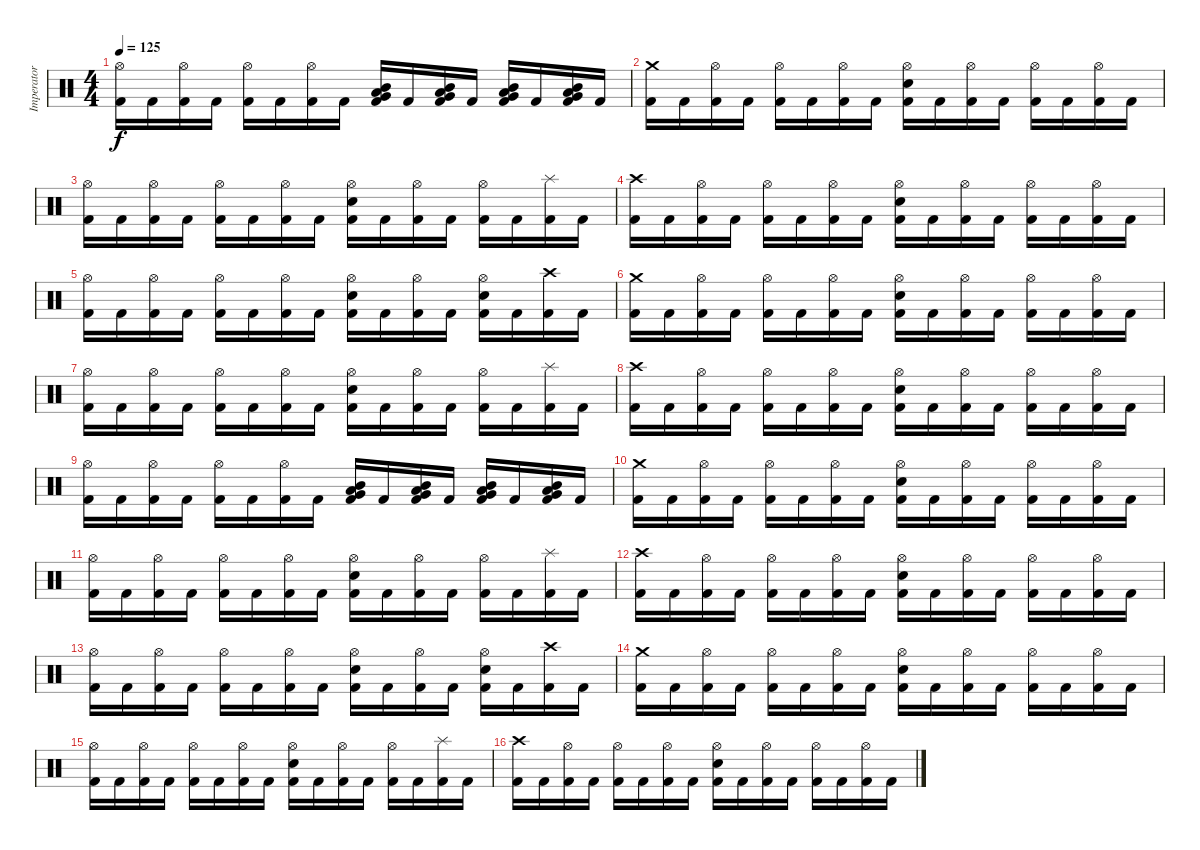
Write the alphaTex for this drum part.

\track ("Imperator" "Imperator") {instrument percussion}
\staff {score}
\articulation defaults
\ts (4 4)
\tempo 125
\clef neutral
\ks c
("Hi-Hat (open)" "Kick (hit) 2").16{dy f} "Kick (hit) 2".16 ("Hi-Hat (open)" "Kick (hit) 2").16 "Kick (hit) 2".16 ("Hi-Hat (open)" "Kick (hit) 2").16 "Kick (hit) 2".16 ("Hi-Hat (open)" "Kick (hit) 2").16 "Kick (hit) 2".16 ("Low Tom (hit)" "Mid Tom (hit)" "Very Low Tom (hit)" "Kick (hit) 2").16 "Kick (hit) 2".16 ("Low Tom (hit)" "Mid Tom (hit)" "Very Low Tom (hit)" "Kick (hit) 2").16 "Kick (hit) 2".16 ("Low Tom (hit)" "Mid Tom (hit)" "Very Low Tom (hit)" "Kick (hit) 2").16 "Kick (hit) 2".16 ("Low Tom (hit)" "Mid Tom (hit)" "Very Low Tom (hit)" "Kick (hit) 2").16 "Kick (hit) 2".16 |
("Crash medium (hit)" "Kick (hit) 2").16 "Kick (hit) 2".16 ("Hi-Hat (open)" "Kick (hit) 2").16 "Kick (hit) 2".16 ("Hi-Hat (open)" "Kick (hit) 2").16 "Kick (hit) 2".16 ("Hi-Hat (open)" "Kick (hit) 2").16 "Kick (hit) 2".16 ("Hi-Hat (open)" "Snare (hit) 2" "Kick (hit) 2").16 "Kick (hit) 2".16 ("Hi-Hat (open)" "Kick (hit) 2").16 "Kick (hit) 2".16 ("Hi-Hat (open)" "Kick (hit) 2").16 "Kick (hit) 2".16 ("Hi-Hat (open)" "Kick (hit) 2").16 "Kick (hit) 2".16 |
("Hi-Hat (open)" "Kick (hit) 2").16 "Kick (hit) 2".16 ("Hi-Hat (open)" "Kick (hit) 2").16 "Kick (hit) 2".16 ("Hi-Hat (open)" "Kick (hit) 2").16 "Kick (hit) 2".16 ("Hi-Hat (open)" "Kick (hit) 2").16 "Kick (hit) 2".16 ("Hi-Hat (open)" "Snare (hit) 2" "Kick (hit) 2").16 "Kick (hit) 2".16 ("Hi-Hat (open)" "Kick (hit) 2").16 "Kick (hit) 2".16 ("Hi-Hat (open)" "Kick (hit) 2").16 "Kick (hit) 2".16 ("Splash (hit)" "Kick (hit) 2").16 "Kick (hit) 2".16 |
("Crash high (hit)" "Kick (hit) 2").16 "Kick (hit) 2".16 ("Hi-Hat (open)" "Kick (hit) 2").16 "Kick (hit) 2".16 ("Hi-Hat (open)" "Kick (hit) 2").16 "Kick (hit) 2".16 ("Hi-Hat (open)" "Kick (hit) 2").16 "Kick (hit) 2".16 ("Hi-Hat (open)" "Snare (hit) 2" "Kick (hit) 2").16 "Kick (hit) 2".16 ("Hi-Hat (open)" "Kick (hit) 2").16 "Kick (hit) 2".16 ("Hi-Hat (open)" "Kick (hit) 2").16 "Kick (hit) 2".16 ("Hi-Hat (open)" "Kick (hit) 2").16 "Kick (hit) 2".16 |
("Hi-Hat (open)" "Kick (hit) 2").16 "Kick (hit) 2".16 ("Hi-Hat (open)" "Kick (hit) 2").16 "Kick (hit) 2".16 ("Hi-Hat (open)" "Kick (hit) 2").16 "Kick (hit) 2".16 ("Hi-Hat (open)" "Kick (hit) 2").16 "Kick (hit) 2".16 ("Hi-Hat (open)" "Snare (hit) 2" "Kick (hit) 2").16 "Kick (hit) 2".16 ("Hi-Hat (open)" "Kick (hit) 2").16 "Kick (hit) 2".16 ("Hi-Hat (open)" "Snare (hit) 2" "Kick (hit) 2").16 "Kick (hit) 2".16 ("Crash high (hit)" "Kick (hit) 2").16 "Kick (hit) 2".16 |
("Crash medium (hit)" "Kick (hit) 2").16 "Kick (hit) 2".16 ("Hi-Hat (open)" "Kick (hit) 2").16 "Kick (hit) 2".16 ("Hi-Hat (open)" "Kick (hit) 2").16 "Kick (hit) 2".16 ("Hi-Hat (open)" "Kick (hit) 2").16 "Kick (hit) 2".16 ("Hi-Hat (open)" "Snare (hit) 2" "Kick (hit) 2").16 "Kick (hit) 2".16 ("Hi-Hat (open)" "Kick (hit) 2").16 "Kick (hit) 2".16 ("Hi-Hat (open)" "Kick (hit) 2").16 "Kick (hit) 2".16 ("Hi-Hat (open)" "Kick (hit) 2").16 "Kick (hit) 2".16 |
("Hi-Hat (open)" "Kick (hit) 2").16 "Kick (hit) 2".16 ("Hi-Hat (open)" "Kick (hit) 2").16 "Kick (hit) 2".16 ("Hi-Hat (open)" "Kick (hit) 2").16 "Kick (hit) 2".16 ("Hi-Hat (open)" "Kick (hit) 2").16 "Kick (hit) 2".16 ("Hi-Hat (open)" "Snare (hit) 2" "Kick (hit) 2").16 "Kick (hit) 2".16 ("Hi-Hat (open)" "Kick (hit) 2").16 "Kick (hit) 2".16 ("Hi-Hat (open)" "Kick (hit) 2").16 "Kick (hit) 2".16 ("Splash (hit)" "Kick (hit) 2").16 "Kick (hit) 2".16 |
("Crash high (hit)" "Kick (hit) 2").16 "Kick (hit) 2".16 ("Hi-Hat (open)" "Kick (hit) 2").16 "Kick (hit) 2".16 ("Hi-Hat (open)" "Kick (hit) 2").16 "Kick (hit) 2".16 ("Hi-Hat (open)" "Kick (hit) 2").16 "Kick (hit) 2".16 ("Hi-Hat (open)" "Snare (hit) 2" "Kick (hit) 2").16 "Kick (hit) 2".16 ("Hi-Hat (open)" "Kick (hit) 2").16 "Kick (hit) 2".16 ("Hi-Hat (open)" "Kick (hit) 2").16 "Kick (hit) 2".16 ("Hi-Hat (open)" "Kick (hit) 2").16 "Kick (hit) 2".16 |
("Hi-Hat (open)" "Kick (hit) 2").16 "Kick (hit) 2".16 ("Hi-Hat (open)" "Kick (hit) 2").16 "Kick (hit) 2".16 ("Hi-Hat (open)" "Kick (hit) 2").16 "Kick (hit) 2".16 ("Hi-Hat (open)" "Kick (hit) 2").16 "Kick (hit) 2".16 ("Low Tom (hit)" "Mid Tom (hit)" "Very Low Tom (hit)" "Kick (hit) 2").16 "Kick (hit) 2".16 ("Low Tom (hit)" "Mid Tom (hit)" "Very Low Tom (hit)" "Kick (hit) 2").16 "Kick (hit) 2".16 ("Low Tom (hit)" "Mid Tom (hit)" "Very Low Tom (hit)" "Kick (hit) 2").16 "Kick (hit) 2".16 ("Low Tom (hit)" "Mid Tom (hit)" "Very Low Tom (hit)" "Kick (hit) 2").16 "Kick (hit) 2".16 |
("Crash medium (hit)" "Kick (hit) 2").16 "Kick (hit) 2".16 ("Hi-Hat (open)" "Kick (hit) 2").16 "Kick (hit) 2".16 ("Hi-Hat (open)" "Kick (hit) 2").16 "Kick (hit) 2".16 ("Hi-Hat (open)" "Kick (hit) 2").16 "Kick (hit) 2".16 ("Hi-Hat (open)" "Snare (hit) 2" "Kick (hit) 2").16 "Kick (hit) 2".16 ("Hi-Hat (open)" "Kick (hit) 2").16 "Kick (hit) 2".16 ("Hi-Hat (open)" "Kick (hit) 2").16 "Kick (hit) 2".16 ("Hi-Hat (open)" "Kick (hit) 2").16 "Kick (hit) 2".16 |
("Hi-Hat (open)" "Kick (hit) 2").16 "Kick (hit) 2".16 ("Hi-Hat (open)" "Kick (hit) 2").16 "Kick (hit) 2".16 ("Hi-Hat (open)" "Kick (hit) 2").16 "Kick (hit) 2".16 ("Hi-Hat (open)" "Kick (hit) 2").16 "Kick (hit) 2".16 ("Hi-Hat (open)" "Snare (hit) 2" "Kick (hit) 2").16 "Kick (hit) 2".16 ("Hi-Hat (open)" "Kick (hit) 2").16 "Kick (hit) 2".16 ("Hi-Hat (open)" "Kick (hit) 2").16 "Kick (hit) 2".16 ("Splash (hit)" "Kick (hit) 2").16 "Kick (hit) 2".16 |
("Crash high (hit)" "Kick (hit) 2").16 "Kick (hit) 2".16 ("Hi-Hat (open)" "Kick (hit) 2").16 "Kick (hit) 2".16 ("Hi-Hat (open)" "Kick (hit) 2").16 "Kick (hit) 2".16 ("Hi-Hat (open)" "Kick (hit) 2").16 "Kick (hit) 2".16 ("Hi-Hat (open)" "Snare (hit) 2" "Kick (hit) 2").16 "Kick (hit) 2".16 ("Hi-Hat (open)" "Kick (hit) 2").16 "Kick (hit) 2".16 ("Hi-Hat (open)" "Kick (hit) 2").16 "Kick (hit) 2".16 ("Hi-Hat (open)" "Kick (hit) 2").16 "Kick (hit) 2".16 |
("Hi-Hat (open)" "Kick (hit) 2").16 "Kick (hit) 2".16 ("Hi-Hat (open)" "Kick (hit) 2").16 "Kick (hit) 2".16 ("Hi-Hat (open)" "Kick (hit) 2").16 "Kick (hit) 2".16 ("Hi-Hat (open)" "Kick (hit) 2").16 "Kick (hit) 2".16 ("Hi-Hat (open)" "Snare (hit) 2" "Kick (hit) 2").16 "Kick (hit) 2".16 ("Hi-Hat (open)" "Kick (hit) 2").16 "Kick (hit) 2".16 ("Hi-Hat (open)" "Snare (hit) 2" "Kick (hit) 2").16 "Kick (hit) 2".16 ("Crash high (hit)" "Kick (hit) 2").16 "Kick (hit) 2".16 |
("Crash medium (hit)" "Kick (hit) 2").16 "Kick (hit) 2".16 ("Hi-Hat (open)" "Kick (hit) 2").16 "Kick (hit) 2".16 ("Hi-Hat (open)" "Kick (hit) 2").16 "Kick (hit) 2".16 ("Hi-Hat (open)" "Kick (hit) 2").16 "Kick (hit) 2".16 ("Hi-Hat (open)" "Snare (hit) 2" "Kick (hit) 2").16 "Kick (hit) 2".16 ("Hi-Hat (open)" "Kick (hit) 2").16 "Kick (hit) 2".16 ("Hi-Hat (open)" "Kick (hit) 2").16 "Kick (hit) 2".16 ("Hi-Hat (open)" "Kick (hit) 2").16 "Kick (hit) 2".16 |
("Hi-Hat (open)" "Kick (hit) 2").16 "Kick (hit) 2".16 ("Hi-Hat (open)" "Kick (hit) 2").16 "Kick (hit) 2".16 ("Hi-Hat (open)" "Kick (hit) 2").16 "Kick (hit) 2".16 ("Hi-Hat (open)" "Kick (hit) 2").16 "Kick (hit) 2".16 ("Hi-Hat (open)" "Snare (hit) 2" "Kick (hit) 2").16 "Kick (hit) 2".16 ("Hi-Hat (open)" "Kick (hit) 2").16 "Kick (hit) 2".16 ("Hi-Hat (open)" "Kick (hit) 2").16 "Kick (hit) 2".16 ("Splash (hit)" "Kick (hit) 2").16 "Kick (hit) 2".16 |
("Crash high (hit)" "Kick (hit) 2").16 "Kick (hit) 2".16 ("Hi-Hat (open)" "Kick (hit) 2").16 "Kick (hit) 2".16 ("Hi-Hat (open)" "Kick (hit) 2").16 "Kick (hit) 2".16 ("Hi-Hat (open)" "Kick (hit) 2").16 "Kick (hit) 2".16 ("Hi-Hat (open)" "Snare (hit) 2" "Kick (hit) 2").16 "Kick (hit) 2".16 ("Hi-Hat (open)" "Kick (hit) 2").16 "Kick (hit) 2".16 ("Hi-Hat (open)" "Kick (hit) 2").16 "Kick (hit) 2".16 ("Hi-Hat (open)" "Kick (hit) 2").16 "Kick (hit) 2".16
